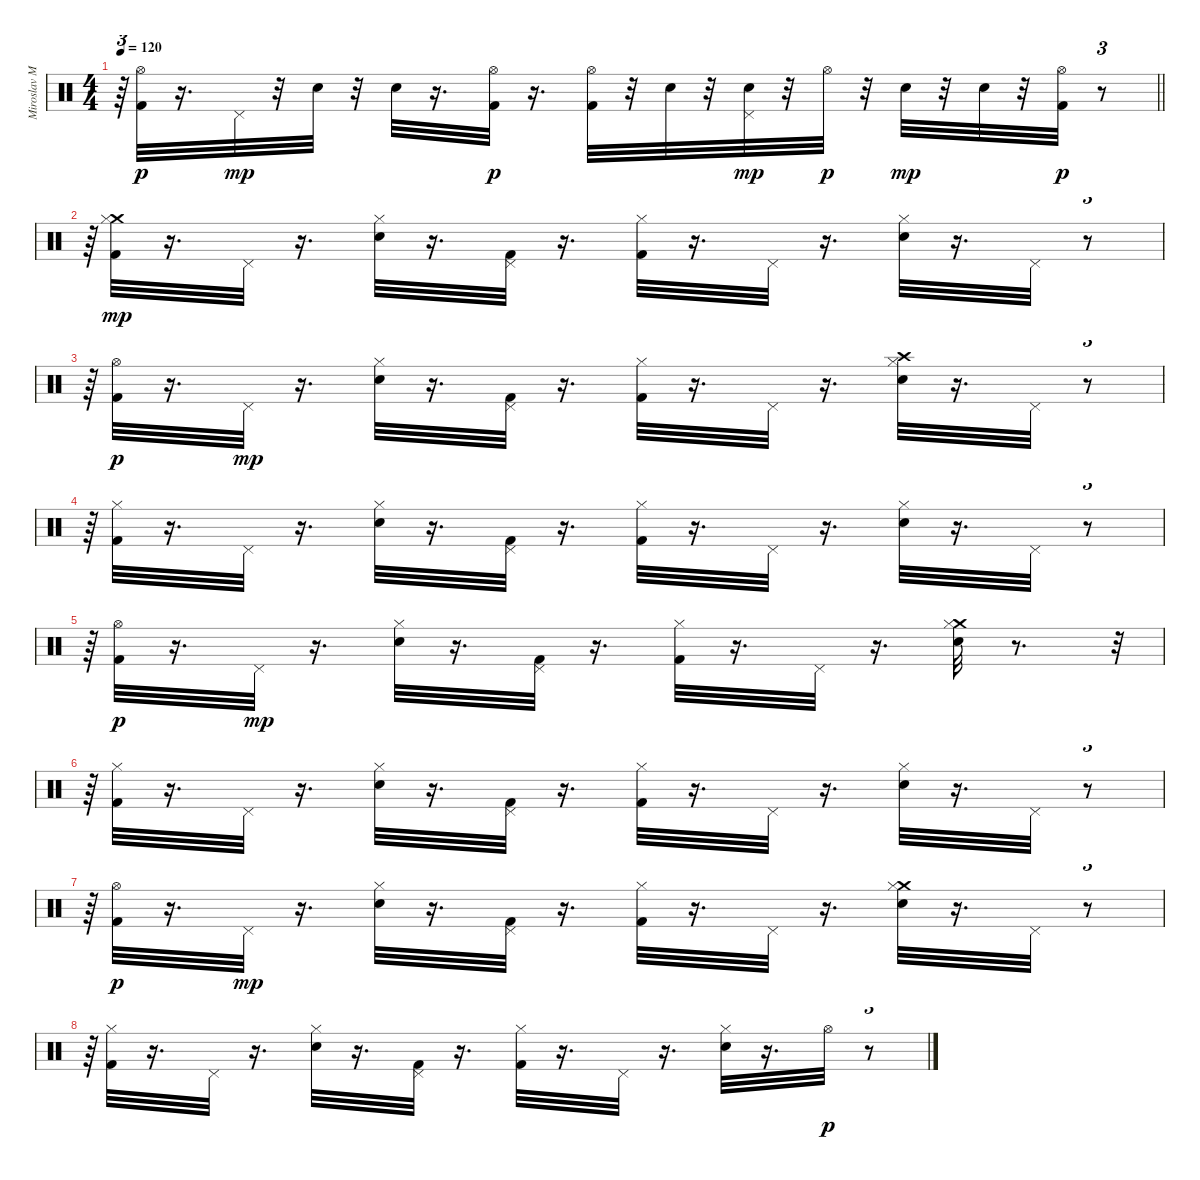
\track ("Miroslav Milatovic-Vicko-bubnjevi" "Miroslav M") {instrument percussion}
\staff {score}
\articulation defaults
\ts (4 4)
\tempo 120
\clef neutral
\barLineRight lightlight
\ks c
r.64{tu (3 2) dy mp} ("Hi-Hat (open)" "Kick (hit) 2").32{dy p} r.16{d} "Pedal Hi-Hat (hit)".32{dy mp} r.32 "Electric Snare (hit)".32 r.32 "Electric Snare (hit)".32 r.16{d} ("Hi-Hat (open)" "Kick (hit) 2").32{dy p} r.16{d} ("Hi-Hat (open)" "Kick (hit) 2").32 r.32 "Electric Snare (hit)".32 r.32 ("Pedal Hi-Hat (hit)" "Electric Snare (hit)").32{dy mp} r.32 "Hi-Hat (open)".32{dy p} r.32 "Electric Snare (hit)".32{dy mp} r.32 "Electric Snare (hit)".32 r.32 ("Hi-Hat (open)" "Kick (hit) 2").32{dy p} r.8{tu (3 2)} |
r.64{tu (3 2)} ("Crash medium (hit)" "Kick (hit) 2" "Hi-Hat (closed)").32{dy mp} r.16{d} "Pedal Hi-Hat (hit)".32 r.16{d} ("Electric Snare (hit)" "Hi-Hat (closed)").32 r.16{d} ("Kick (hit) 2" "Pedal Hi-Hat (hit)").32 r.16{d} ("Kick (hit) 2" "Hi-Hat (closed)").32 r.16{d} "Pedal Hi-Hat (hit)".32 r.16{d} ("Electric Snare (hit)" "Hi-Hat (closed)").32 r.16{d} "Pedal Hi-Hat (hit)".32 r.8{tu (3 2)} |
r.64{tu (3 2)} ("Hi-Hat (open)" "Kick (hit) 2").32{dy p} r.16{d} "Pedal Hi-Hat (hit)".32{dy mp} r.16{d} ("Hi-Hat (closed)" "Electric Snare (hit)").32 r.16{d} ("Pedal Hi-Hat (hit)" "Kick (hit) 2").32 r.16{d} ("Hi-Hat (closed)" "Kick (hit) 2").32 r.16{d} "Pedal Hi-Hat (hit)".32 r.16{d} ("Crash high (hit)" "Hi-Hat (closed)" "Electric Snare (hit)").32 r.16{d} "Pedal Hi-Hat (hit)".32 r.8{tu (3 2)} |
r.64{tu (3 2)} ("Hi-Hat (closed)" "Kick (hit) 2").32 r.16{d} "Pedal Hi-Hat (hit)".32 r.16{d} ("Hi-Hat (closed)" "Electric Snare (hit)").32 r.16{d} ("Pedal Hi-Hat (hit)" "Kick (hit) 2").32 r.16{d} ("Hi-Hat (closed)" "Kick (hit) 2").32 r.16{d} "Pedal Hi-Hat (hit)".32 r.16{d} ("Hi-Hat (closed)" "Electric Snare (hit)").32 r.16{d} "Pedal Hi-Hat (hit)".32 r.8{tu (3 2)} |
r.64{tu (3 2)} ("Hi-Hat (open)" "Kick (hit) 2").32{dy p} r.16{d} "Pedal Hi-Hat (hit)".32{dy mp} r.16{d} ("Electric Snare (hit)" "Hi-Hat (closed)").32 r.16{d} ("Kick (hit) 2" "Pedal Hi-Hat (hit)").32 r.16{d} ("Kick (hit) 2" "Hi-Hat (closed)").32 r.16{d} "Pedal Hi-Hat (hit)".32 r.16{d} ("Crash medium (hit)" "Electric Snare (hit)" "Hi-Hat (closed)").32 r.8{d} r.32{tu (3 2)} |
r.64{tu (3 2)} ("Hi-Hat (closed)" "Kick (hit) 2").32 r.16{d} "Pedal Hi-Hat (hit)".32 r.16{d} ("Hi-Hat (closed)" "Electric Snare (hit)").32 r.16{d} ("Pedal Hi-Hat (hit)" "Kick (hit) 2").32 r.16{d} ("Hi-Hat (closed)" "Kick (hit) 2").32 r.16{d} "Pedal Hi-Hat (hit)".32 r.16{d} ("Hi-Hat (closed)" "Electric Snare (hit)").32 r.16{d} "Pedal Hi-Hat (hit)".32 r.8{tu (3 2)} |
r.64{tu (3 2)} ("Hi-Hat (open)" "Kick (hit) 2").32{dy p} r.16{d} "Pedal Hi-Hat (hit)".32{dy mp} r.16{d} ("Electric Snare (hit)" "Hi-Hat (closed)").32 r.16{d} ("Kick (hit) 2" "Pedal Hi-Hat (hit)").32 r.16{d} ("Kick (hit) 2" "Hi-Hat (closed)").32 r.16{d} "Pedal Hi-Hat (hit)".32 r.16{d} ("Crash medium (hit)" "Electric Snare (hit)" "Hi-Hat (closed)").32 r.16{d} "Pedal Hi-Hat (hit)".32 r.8{tu (3 2)} |
r.64{tu (3 2)} ("Kick (hit) 2" "Hi-Hat (closed)").32 r.16{d} "Pedal Hi-Hat (hit)".32 r.16{d} ("Electric Snare (hit)" "Hi-Hat (closed)").32 r.16{d} ("Kick (hit) 2" "Pedal Hi-Hat (hit)").32 r.16{d} ("Kick (hit) 2" "Hi-Hat (closed)").32 r.16{d} "Pedal Hi-Hat (hit)".32 r.16{d} ("Electric Snare (hit)" "Hi-Hat (closed)").32 r.16{d} "Hi-Hat (open)".32{dy p} r.8{tu (3 2)}
